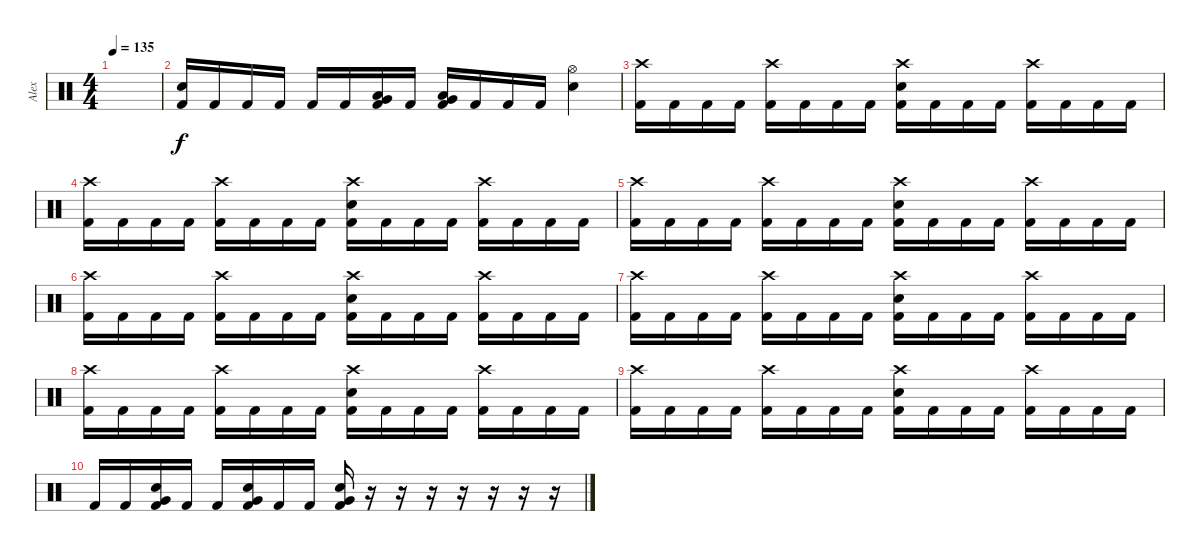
\track ("Alex" "Alex") {instrument percussion}
\staff {score}
\articulation defaults
\ts (4 4)
\tempo 135
\clef neutral
\ks c
|
("Electric Snare (hit)" "Kick (hit) 2").16 "Kick (hit) 2".16 "Kick (hit) 2".16 "Kick (hit) 2".16 "Kick (hit) 2".16 "Kick (hit) 2".16 ("Low Floor Tom (hit)" "Very Low Tom (hit)" "Kick (hit) 2").16 "Kick (hit) 2".16 ("Low Floor Tom (hit)" "Very Low Tom (hit)" "Kick (hit) 2").16 "Kick (hit) 2".16 "Kick (hit) 2".16 "Kick (hit) 2".16 ("Hi-Hat (open)" "Electric Snare (hit)").4 |
("Crash high (hit)" "Kick (hit) 2").16 "Kick (hit) 2".16 "Kick (hit) 2".16 "Kick (hit) 2".16 ("Crash high (hit)" "Kick (hit) 2").16 "Kick (hit) 2".16 "Kick (hit) 2".16 "Kick (hit) 2".16 ("Crash high (hit)" "Electric Snare (hit)" "Kick (hit) 2").16 "Kick (hit) 2".16 "Kick (hit) 2".16 "Kick (hit) 2".16 ("Crash high (hit)" "Kick (hit) 2").16 "Kick (hit) 2".16 "Kick (hit) 2".16 "Kick (hit) 2".16 |
("Crash high (hit)" "Kick (hit) 2").16 "Kick (hit) 2".16 "Kick (hit) 2".16 "Kick (hit) 2".16 ("Crash high (hit)" "Kick (hit) 2").16 "Kick (hit) 2".16 "Kick (hit) 2".16 "Kick (hit) 2".16 ("Crash high (hit)" "Electric Snare (hit)" "Kick (hit) 2").16 "Kick (hit) 2".16 "Kick (hit) 2".16 "Kick (hit) 2".16 ("Crash high (hit)" "Kick (hit) 2").16 "Kick (hit) 2".16 "Kick (hit) 2".16 "Kick (hit) 2".16 |
("Crash high (hit)" "Kick (hit) 2").16 "Kick (hit) 2".16 "Kick (hit) 2".16 "Kick (hit) 2".16 ("Crash high (hit)" "Kick (hit) 2").16 "Kick (hit) 2".16 "Kick (hit) 2".16 "Kick (hit) 2".16 ("Crash high (hit)" "Electric Snare (hit)" "Kick (hit) 2").16 "Kick (hit) 2".16 "Kick (hit) 2".16 "Kick (hit) 2".16 ("Crash high (hit)" "Kick (hit) 2").16 "Kick (hit) 2".16 "Kick (hit) 2".16 "Kick (hit) 2".16 |
("Crash high (hit)" "Kick (hit) 2").16 "Kick (hit) 2".16 "Kick (hit) 2".16 "Kick (hit) 2".16 ("Crash high (hit)" "Kick (hit) 2").16 "Kick (hit) 2".16 "Kick (hit) 2".16 "Kick (hit) 2".16 ("Crash high (hit)" "Electric Snare (hit)" "Kick (hit) 2").16 "Kick (hit) 2".16 "Kick (hit) 2".16 "Kick (hit) 2".16 ("Crash high (hit)" "Kick (hit) 2").16 "Kick (hit) 2".16 "Kick (hit) 2".16 "Kick (hit) 2".16 |
("Crash high (hit)" "Kick (hit) 2").16 "Kick (hit) 2".16 "Kick (hit) 2".16 "Kick (hit) 2".16 ("Crash high (hit)" "Kick (hit) 2").16 "Kick (hit) 2".16 "Kick (hit) 2".16 "Kick (hit) 2".16 ("Crash high (hit)" "Electric Snare (hit)" "Kick (hit) 2").16 "Kick (hit) 2".16 "Kick (hit) 2".16 "Kick (hit) 2".16 ("Crash high (hit)" "Kick (hit) 2").16 "Kick (hit) 2".16 "Kick (hit) 2".16 "Kick (hit) 2".16 |
("Crash high (hit)" "Kick (hit) 2").16 "Kick (hit) 2".16 "Kick (hit) 2".16 "Kick (hit) 2".16 ("Crash high (hit)" "Kick (hit) 2").16 "Kick (hit) 2".16 "Kick (hit) 2".16 "Kick (hit) 2".16 ("Crash high (hit)" "Electric Snare (hit)" "Kick (hit) 2").16 "Kick (hit) 2".16 "Kick (hit) 2".16 "Kick (hit) 2".16 ("Crash high (hit)" "Kick (hit) 2").16 "Kick (hit) 2".16 "Kick (hit) 2".16 "Kick (hit) 2".16 |
("Crash high (hit)" "Kick (hit) 2").16 "Kick (hit) 2".16 "Kick (hit) 2".16 "Kick (hit) 2".16 ("Crash high (hit)" "Kick (hit) 2").16 "Kick (hit) 2".16 "Kick (hit) 2".16 "Kick (hit) 2".16 ("Crash high (hit)" "Electric Snare (hit)" "Kick (hit) 2").16 "Kick (hit) 2".16 "Kick (hit) 2".16 "Kick (hit) 2".16 ("Crash high (hit)" "Kick (hit) 2").16 "Kick (hit) 2".16 "Kick (hit) 2".16 "Kick (hit) 2".16 |
"Kick (hit) 2".16 "Kick (hit) 2".16 ("Very Low Tom (hit)" "Electric Snare (hit)" "Kick (hit) 2").16 "Kick (hit) 2".16 "Kick (hit) 2".16 ("Very Low Tom (hit)" "Electric Snare (hit)" "Kick (hit) 2").16 "Kick (hit) 2".16 "Kick (hit) 2".16 ("Very Low Tom (hit)" "Electric Snare (hit)" "Kick (hit) 2").16 r.16 r.16 r.16 r.16 r.16 r.16 r.16
